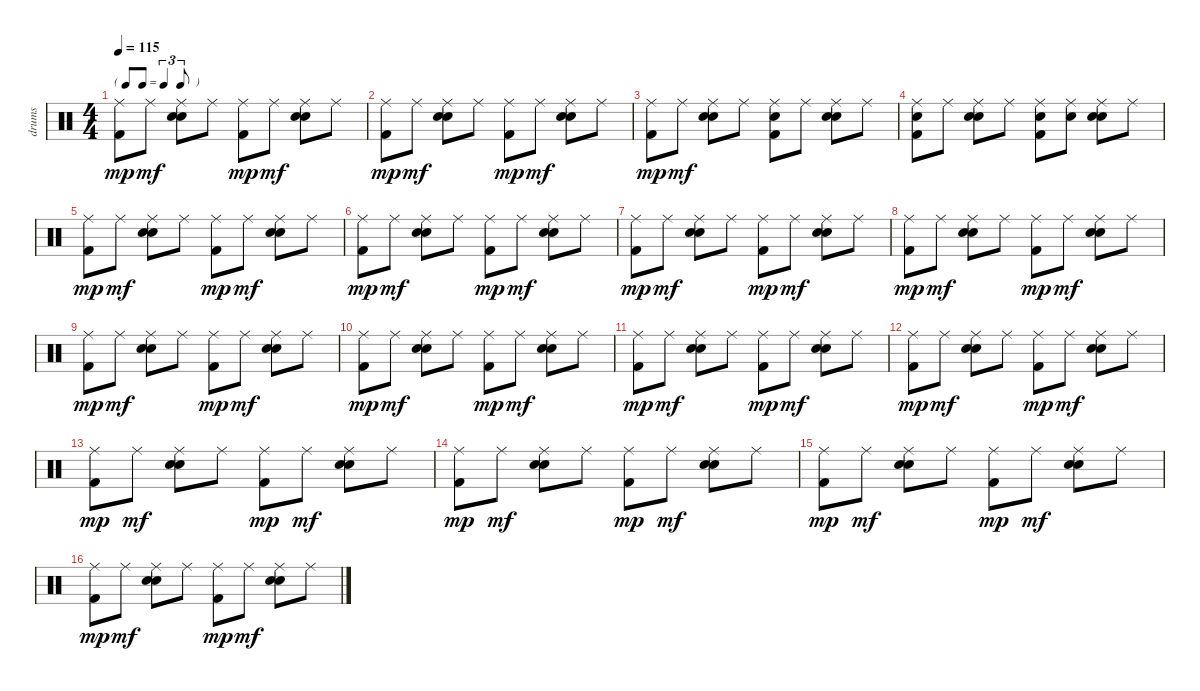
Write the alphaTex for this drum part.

\track ("drums" "drums") {instrument percussion}
\staff {score}
\articulation defaults
\ts (4 4)
\tf triplet8th
\tempo 115
\clef neutral
\ks c
("Ride (middle)" "Kick (hit) 2").8{dy mp} "Ride (middle)".8{dy mf} ("Ride (middle)" "Snare (hit) 2" "Hand Clap (hit)").8 "Ride (middle)".8 ("Ride (middle)" "Kick (hit) 2").8{dy mp} "Ride (middle)".8{dy mf} ("Ride (middle)" "Snare (hit) 2" "Hand Clap (hit)").8 "Ride (middle)".8 |
("Ride (middle)" "Kick (hit) 2").8{dy mp} "Ride (middle)".8{dy mf} ("Ride (middle)" "Snare (hit) 2" "Hand Clap (hit)").8 "Ride (middle)".8 ("Ride (middle)" "Kick (hit) 2").8{dy mp} "Ride (middle)".8{dy mf} ("Ride (middle)" "Snare (hit) 2" "Hand Clap (hit)").8 "Ride (middle)".8 |
("Ride (middle)" "Kick (hit) 2").8{dy mp} "Ride (middle)".8{dy mf} ("Ride (middle)" "Snare (hit) 2" "Hand Clap (hit)").8 "Ride (middle)".8 ("Ride (middle)" "Kick (hit) 2" "Hand Clap (hit)").8 "Ride (middle)".8 ("Ride (middle)" "Snare (hit) 2" "Hand Clap (hit)").8 "Ride (middle)".8 |
("Ride (middle)" "Kick (hit) 2" "Hand Clap (hit)").8 "Ride (middle)".8 ("Ride (middle)" "Snare (hit) 2" "Hand Clap (hit)").8 "Ride (middle)".8 ("Ride (middle)" "Kick (hit) 2" "Hand Clap (hit)").8 ("Ride (middle)" "Hand Clap (hit)").8 ("Ride (middle)" "Snare (hit) 2" "Hand Clap (hit)").8 "Ride (middle)".8 |
("Ride (middle)" "Kick (hit) 2").8{dy mp} "Ride (middle)".8{dy mf} ("Ride (middle)" "Snare (hit) 2" "Hand Clap (hit)").8 "Ride (middle)".8 ("Ride (middle)" "Kick (hit) 2").8{dy mp} "Ride (middle)".8{dy mf} ("Ride (middle)" "Snare (hit) 2" "Hand Clap (hit)").8 "Ride (middle)".8 |
("Ride (middle)" "Kick (hit) 2").8{dy mp} "Ride (middle)".8{dy mf} ("Ride (middle)" "Snare (hit) 2" "Hand Clap (hit)").8 "Ride (middle)".8 ("Ride (middle)" "Kick (hit) 2").8{dy mp} "Ride (middle)".8{dy mf} ("Ride (middle)" "Snare (hit) 2" "Hand Clap (hit)").8 "Ride (middle)".8 |
("Ride (middle)" "Kick (hit) 2").8{dy mp} "Ride (middle)".8{dy mf} ("Ride (middle)" "Snare (hit) 2" "Hand Clap (hit)").8 "Ride (middle)".8 ("Ride (middle)" "Kick (hit) 2").8{dy mp} "Ride (middle)".8{dy mf} ("Ride (middle)" "Snare (hit) 2" "Hand Clap (hit)").8 "Ride (middle)".8 |
("Ride (middle)" "Kick (hit) 2").8{dy mp} "Ride (middle)".8{dy mf} ("Ride (middle)" "Snare (hit) 2" "Hand Clap (hit)").8 "Ride (middle)".8 ("Ride (middle)" "Kick (hit) 2").8{dy mp} "Ride (middle)".8{dy mf} ("Ride (middle)" "Snare (hit) 2" "Hand Clap (hit)").8 "Ride (middle)".8 |
("Ride (middle)" "Kick (hit) 2").8{dy mp} "Ride (middle)".8{dy mf} ("Ride (middle)" "Snare (hit) 2" "Hand Clap (hit)").8 "Ride (middle)".8 ("Ride (middle)" "Kick (hit) 2").8{dy mp} "Ride (middle)".8{dy mf} ("Ride (middle)" "Snare (hit) 2" "Hand Clap (hit)").8 "Ride (middle)".8 |
("Ride (middle)" "Kick (hit) 2").8{dy mp} "Ride (middle)".8{dy mf} ("Ride (middle)" "Snare (hit) 2" "Hand Clap (hit)").8 "Ride (middle)".8 ("Ride (middle)" "Kick (hit) 2").8{dy mp} "Ride (middle)".8{dy mf} ("Ride (middle)" "Snare (hit) 2" "Hand Clap (hit)").8 "Ride (middle)".8 |
("Ride (middle)" "Kick (hit) 2").8{dy mp} "Ride (middle)".8{dy mf} ("Ride (middle)" "Snare (hit) 2" "Hand Clap (hit)").8 "Ride (middle)".8 ("Ride (middle)" "Kick (hit) 2").8{dy mp} "Ride (middle)".8{dy mf} ("Ride (middle)" "Snare (hit) 2" "Hand Clap (hit)").8 "Ride (middle)".8 |
("Ride (middle)" "Kick (hit) 2").8{dy mp} "Ride (middle)".8{dy mf} ("Ride (middle)" "Snare (hit) 2" "Hand Clap (hit)").8 "Ride (middle)".8 ("Ride (middle)" "Kick (hit) 2").8{dy mp} "Ride (middle)".8{dy mf} ("Ride (middle)" "Snare (hit) 2" "Hand Clap (hit)").8 "Ride (middle)".8 |
("Ride (middle)" "Kick (hit) 2").8{dy mp} "Ride (middle)".8{dy mf} ("Ride (middle)" "Snare (hit) 2" "Hand Clap (hit)").8 "Ride (middle)".8 ("Ride (middle)" "Kick (hit) 2").8{dy mp} "Ride (middle)".8{dy mf} ("Ride (middle)" "Snare (hit) 2" "Hand Clap (hit)").8 "Ride (middle)".8 |
("Ride (middle)" "Kick (hit) 2").8{dy mp} "Ride (middle)".8{dy mf} ("Ride (middle)" "Snare (hit) 2" "Hand Clap (hit)").8 "Ride (middle)".8 ("Ride (middle)" "Kick (hit) 2").8{dy mp} "Ride (middle)".8{dy mf} ("Ride (middle)" "Snare (hit) 2" "Hand Clap (hit)").8 "Ride (middle)".8 |
("Ride (middle)" "Kick (hit) 2").8{dy mp} "Ride (middle)".8{dy mf} ("Ride (middle)" "Snare (hit) 2" "Hand Clap (hit)").8 "Ride (middle)".8 ("Ride (middle)" "Kick (hit) 2").8{dy mp} "Ride (middle)".8{dy mf} ("Ride (middle)" "Snare (hit) 2" "Hand Clap (hit)").8 "Ride (middle)".8 |
("Ride (middle)" "Kick (hit) 2").8{dy mp} "Ride (middle)".8{dy mf} ("Ride (middle)" "Snare (hit) 2" "Hand Clap (hit)").8 "Ride (middle)".8 ("Ride (middle)" "Kick (hit) 2").8{dy mp} "Ride (middle)".8{dy mf} ("Ride (middle)" "Snare (hit) 2" "Hand Clap (hit)").8 "Ride (middle)".8
